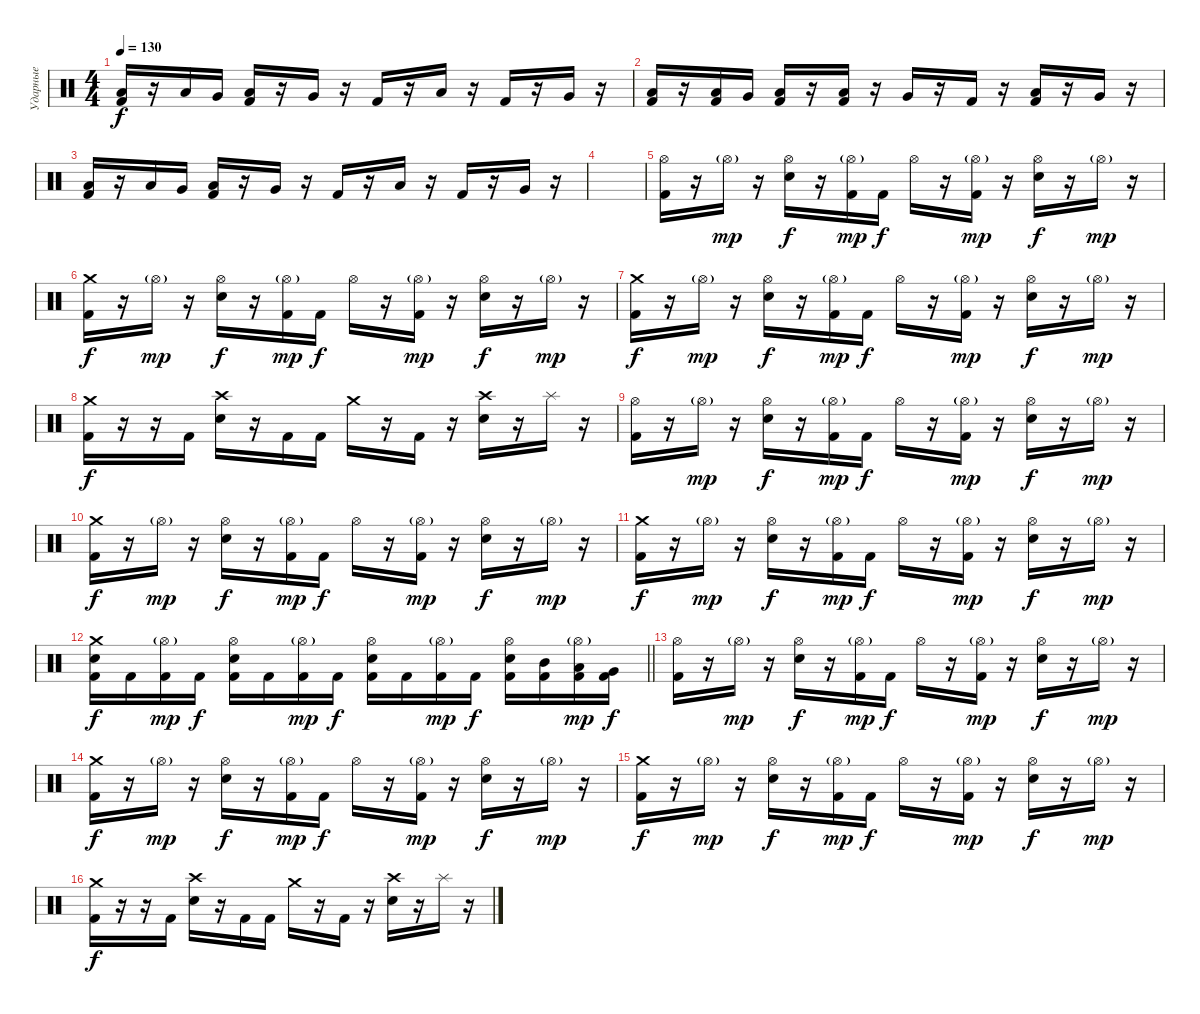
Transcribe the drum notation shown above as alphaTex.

\track ("Ударные" "Ударные") {instrument percussion}
\staff {score}
\articulation defaults
\ts (4 4)
\tempo 130
\clef neutral
\ks c
("Low Floor Tom (hit)" "Kick (hit) 2").16{dy f} r.16 "Low Floor Tom (hit)".16 "Very Low Tom (hit)".16 ("Low Tom (hit)" "Kick (hit) 2").16 r.16 "Very Low Tom (hit)".16 r.16 "Kick (hit) 2".16 r.16 "Low Floor Tom (hit)".16 r.16 "Kick (hit) 2".16 r.16 "Very Low Tom (hit)".16 r.16 |
("Low Floor Tom (hit)" "Kick (hit) 2").16 r.16 ("Low Floor Tom (hit)" "Kick (hit) 2").16 "Very Low Tom (hit)".16 ("Low Tom (hit)" "Kick (hit) 2").16 r.16 ("Low Floor Tom (hit)" "Kick (hit) 2").16 r.16 "Very Low Tom (hit)".16 r.16 "Kick (hit) 2".16 r.16 ("Low Floor Tom (hit)" "Kick (hit) 2").16 r.16 "Very Low Tom (hit)".16 r.16 |
("Low Floor Tom (hit)" "Kick (hit) 2").16 r.16 "Low Floor Tom (hit)".16 "Very Low Tom (hit)".16 ("Low Tom (hit)" "Kick (hit) 2").16 r.16 "Very Low Tom (hit)".16 r.16 "Kick (hit) 2".16 r.16 "Low Floor Tom (hit)".16 r.16 "Kick (hit) 2".16 r.16 "Very Low Tom (hit)".16 r.16 |
|
("Hi-Hat (open)" "Kick (hit) 2").16 r.16 "Hi-Hat (open)"{g}.16{dy mp} r.16 ("Hi-Hat (open)" "Snare (hit) 2").16{dy f} r.16 ("Hi-Hat (open)"{g} "Kick (hit) 2").16{dy mp} "Kick (hit) 2".16{dy f} "Hi-Hat (open)".16 r.16 ("Hi-Hat (open)"{g} "Kick (hit) 2").16{dy mp} r.16 ("Hi-Hat (open)" "Snare (hit) 2").16{dy f} r.16 "Hi-Hat (open)"{g}.16{dy mp} r.16 |
("Crash medium (hit)" "Kick (hit) 2").16{dy f} r.16 "Hi-Hat (open)"{g}.16{dy mp} r.16 ("Hi-Hat (open)" "Snare (hit) 2").16{dy f} r.16 ("Hi-Hat (open)"{g} "Kick (hit) 2").16{dy mp} "Kick (hit) 2".16{dy f} "Hi-Hat (open)".16 r.16 ("Hi-Hat (open)"{g} "Kick (hit) 2").16{dy mp} r.16 ("Hi-Hat (open)" "Snare (hit) 2").16{dy f} r.16 "Hi-Hat (open)"{g}.16{dy mp} r.16 |
("Crash medium (hit)" "Kick (hit) 2").16{dy f} r.16 "Hi-Hat (open)"{g}.16{dy mp} r.16 ("Hi-Hat (open)" "Snare (hit) 2").16{dy f} r.16 ("Hi-Hat (open)"{g} "Kick (hit) 2").16{dy mp} "Kick (hit) 2".16{dy f} "Hi-Hat (open)".16 r.16 ("Hi-Hat (open)"{g} "Kick (hit) 2").16{dy mp} r.16 ("Hi-Hat (open)" "Snare (hit) 2").16{dy f} r.16 "Hi-Hat (open)"{g}.16{dy mp} r.16 |
("Crash medium (hit)" "Kick (hit) 2").16{dy f} r.16 r.16 "Kick (hit) 2".16 ("Crash high (hit)" "Snare (hit) 2").16 r.16 "Kick (hit) 2".16 "Kick (hit) 2".16 "Crash medium (hit)".16 r.16 "Kick (hit) 2".16 r.16 ("Crash high (hit)" "Snare (hit) 2").16 r.16 "Splash (hit)".16 r.16 |
("Hi-Hat (open)" "Kick (hit) 2").16 r.16 "Hi-Hat (open)"{g}.16{dy mp} r.16 ("Hi-Hat (open)" "Snare (hit) 2").16{dy f} r.16 ("Hi-Hat (open)"{g} "Kick (hit) 2").16{dy mp} "Kick (hit) 2".16{dy f} "Hi-Hat (open)".16 r.16 ("Hi-Hat (open)"{g} "Kick (hit) 2").16{dy mp} r.16 ("Hi-Hat (open)" "Snare (hit) 2").16{dy f} r.16 "Hi-Hat (open)"{g}.16{dy mp} r.16 |
("Crash medium (hit)" "Kick (hit) 2").16{dy f} r.16 "Hi-Hat (open)"{g}.16{dy mp} r.16 ("Hi-Hat (open)" "Snare (hit) 2").16{dy f} r.16 ("Hi-Hat (open)"{g} "Kick (hit) 2").16{dy mp} "Kick (hit) 2".16{dy f} "Hi-Hat (open)".16 r.16 ("Hi-Hat (open)"{g} "Kick (hit) 2").16{dy mp} r.16 ("Hi-Hat (open)" "Snare (hit) 2").16{dy f} r.16 "Hi-Hat (open)"{g}.16{dy mp} r.16 |
("Crash medium (hit)" "Kick (hit) 2").16{dy f} r.16 "Hi-Hat (open)"{g}.16{dy mp} r.16 ("Hi-Hat (open)" "Snare (hit) 2").16{dy f} r.16 ("Hi-Hat (open)"{g} "Kick (hit) 2").16{dy mp} "Kick (hit) 2".16{dy f} "Hi-Hat (open)".16 r.16 ("Hi-Hat (open)"{g} "Kick (hit) 2").16{dy mp} r.16 ("Hi-Hat (open)" "Snare (hit) 2").16{dy f} r.16 "Hi-Hat (open)"{g}.16{dy mp} r.16 |
\barLineRight lightlight
("Crash medium (hit)" "Snare (hit) 2" "Kick (hit) 2").16{dy f} "Kick (hit) 2".16 ("Hi-Hat (open)"{g} "Kick (hit) 2").16{dy mp} "Kick (hit) 2".16{dy f} ("Hi-Hat (open)" "Snare (hit) 2" "Kick (hit) 2").16 "Kick (hit) 2".16 ("Hi-Hat (open)"{g} "Kick (hit) 2").16{dy mp} "Kick (hit) 2".16{dy f} ("Hi-Hat (open)" "Snare (hit) 2" "Kick (hit) 2").16 "Kick (hit) 2".16 ("Hi-Hat (open)"{g} "Kick (hit) 2").16{dy mp} "Kick (hit) 2".16{dy f} ("Hi-Hat (open)" "Snare (hit) 2" "Kick (hit) 2").16 ("Mid Tom (hit)" "Kick (hit) 2").16 ("Hi-Hat (open)"{g} "Low Tom (hit)" "Kick (hit) 2").16{dy mp} ("Very Low Tom (hit)" "Kick (hit) 2").16{dy f} |
("Hi-Hat (open)" "Kick (hit) 2").16 r.16 "Hi-Hat (open)"{g}.16{dy mp} r.16 ("Hi-Hat (open)" "Snare (hit) 2").16{dy f} r.16 ("Hi-Hat (open)"{g} "Kick (hit) 2").16{dy mp} "Kick (hit) 2".16{dy f} "Hi-Hat (open)".16 r.16 ("Hi-Hat (open)"{g} "Kick (hit) 2").16{dy mp} r.16 ("Hi-Hat (open)" "Snare (hit) 2").16{dy f} r.16 "Hi-Hat (open)"{g}.16{dy mp} r.16 |
("Crash medium (hit)" "Kick (hit) 2").16{dy f} r.16 "Hi-Hat (open)"{g}.16{dy mp} r.16 ("Hi-Hat (open)" "Snare (hit) 2").16{dy f} r.16 ("Hi-Hat (open)"{g} "Kick (hit) 2").16{dy mp} "Kick (hit) 2".16{dy f} "Hi-Hat (open)".16 r.16 ("Hi-Hat (open)"{g} "Kick (hit) 2").16{dy mp} r.16 ("Hi-Hat (open)" "Snare (hit) 2").16{dy f} r.16 "Hi-Hat (open)"{g}.16{dy mp} r.16 |
("Crash medium (hit)" "Kick (hit) 2").16{dy f} r.16 "Hi-Hat (open)"{g}.16{dy mp} r.16 ("Hi-Hat (open)" "Snare (hit) 2").16{dy f} r.16 ("Hi-Hat (open)"{g} "Kick (hit) 2").16{dy mp} "Kick (hit) 2".16{dy f} "Hi-Hat (open)".16 r.16 ("Hi-Hat (open)"{g} "Kick (hit) 2").16{dy mp} r.16 ("Hi-Hat (open)" "Snare (hit) 2").16{dy f} r.16 "Hi-Hat (open)"{g}.16{dy mp} r.16 |
("Crash medium (hit)" "Kick (hit) 2").16{dy f} r.16 r.16 "Kick (hit) 2".16 ("Crash high (hit)" "Snare (hit) 2").16 r.16 "Kick (hit) 2".16 "Kick (hit) 2".16 "Crash medium (hit)".16 r.16 "Kick (hit) 2".16 r.16 ("Crash high (hit)" "Snare (hit) 2").16 r.16 "Splash (hit)".16 r.16
